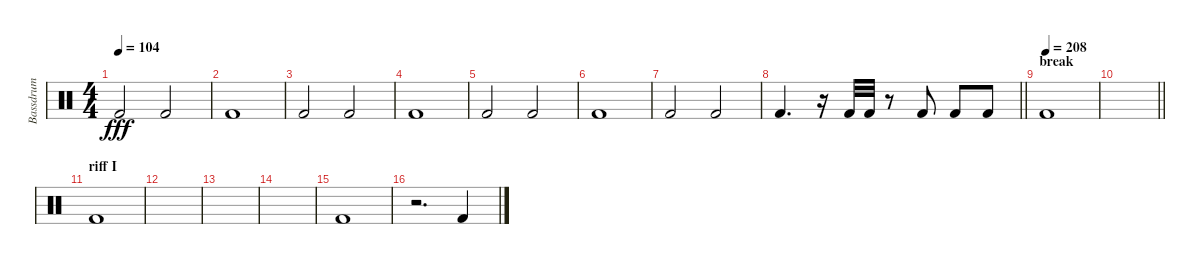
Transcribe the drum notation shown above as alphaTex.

\track ("Bassdrum" "Bassdrum") {instrument percussion}
\staff {score}
\articulation defaults
\ts (4 4)
\section ("" "")
\tempo 104
\clef neutral
\ks c "Kick (hit) 2".2{dy fff} "Kick (hit) 2".2
|
"Kick (hit) 2".1 |
"Kick (hit) 2".2 "Kick (hit) 2".2 |
"Kick (hit) 2".1 |
"Kick (hit) 2".2 "Kick (hit) 2".2 |
"Kick (hit) 2".1 |
"Kick (hit) 2".2 "Kick (hit) 2".2 |
\barLineRight lightlight "Kick (hit) 2".4{d}
r.16 "Kick (hit) 2".32 "Kick (hit) 2".32 r.8 "Kick (hit) 2".8 "Kick (hit) 2".8 "Kick (hit) 2".8 |
\section ("" "break")
\tempo (208)
"Kick (hit) 2".1 |
\barLineRight lightlight
|
\section ("" "riff I")
"Kick (hit) 2".1 |
|
|
|
"Kick (hit) 2".1 |
r.2{d} "Kick (hit) 2".4
